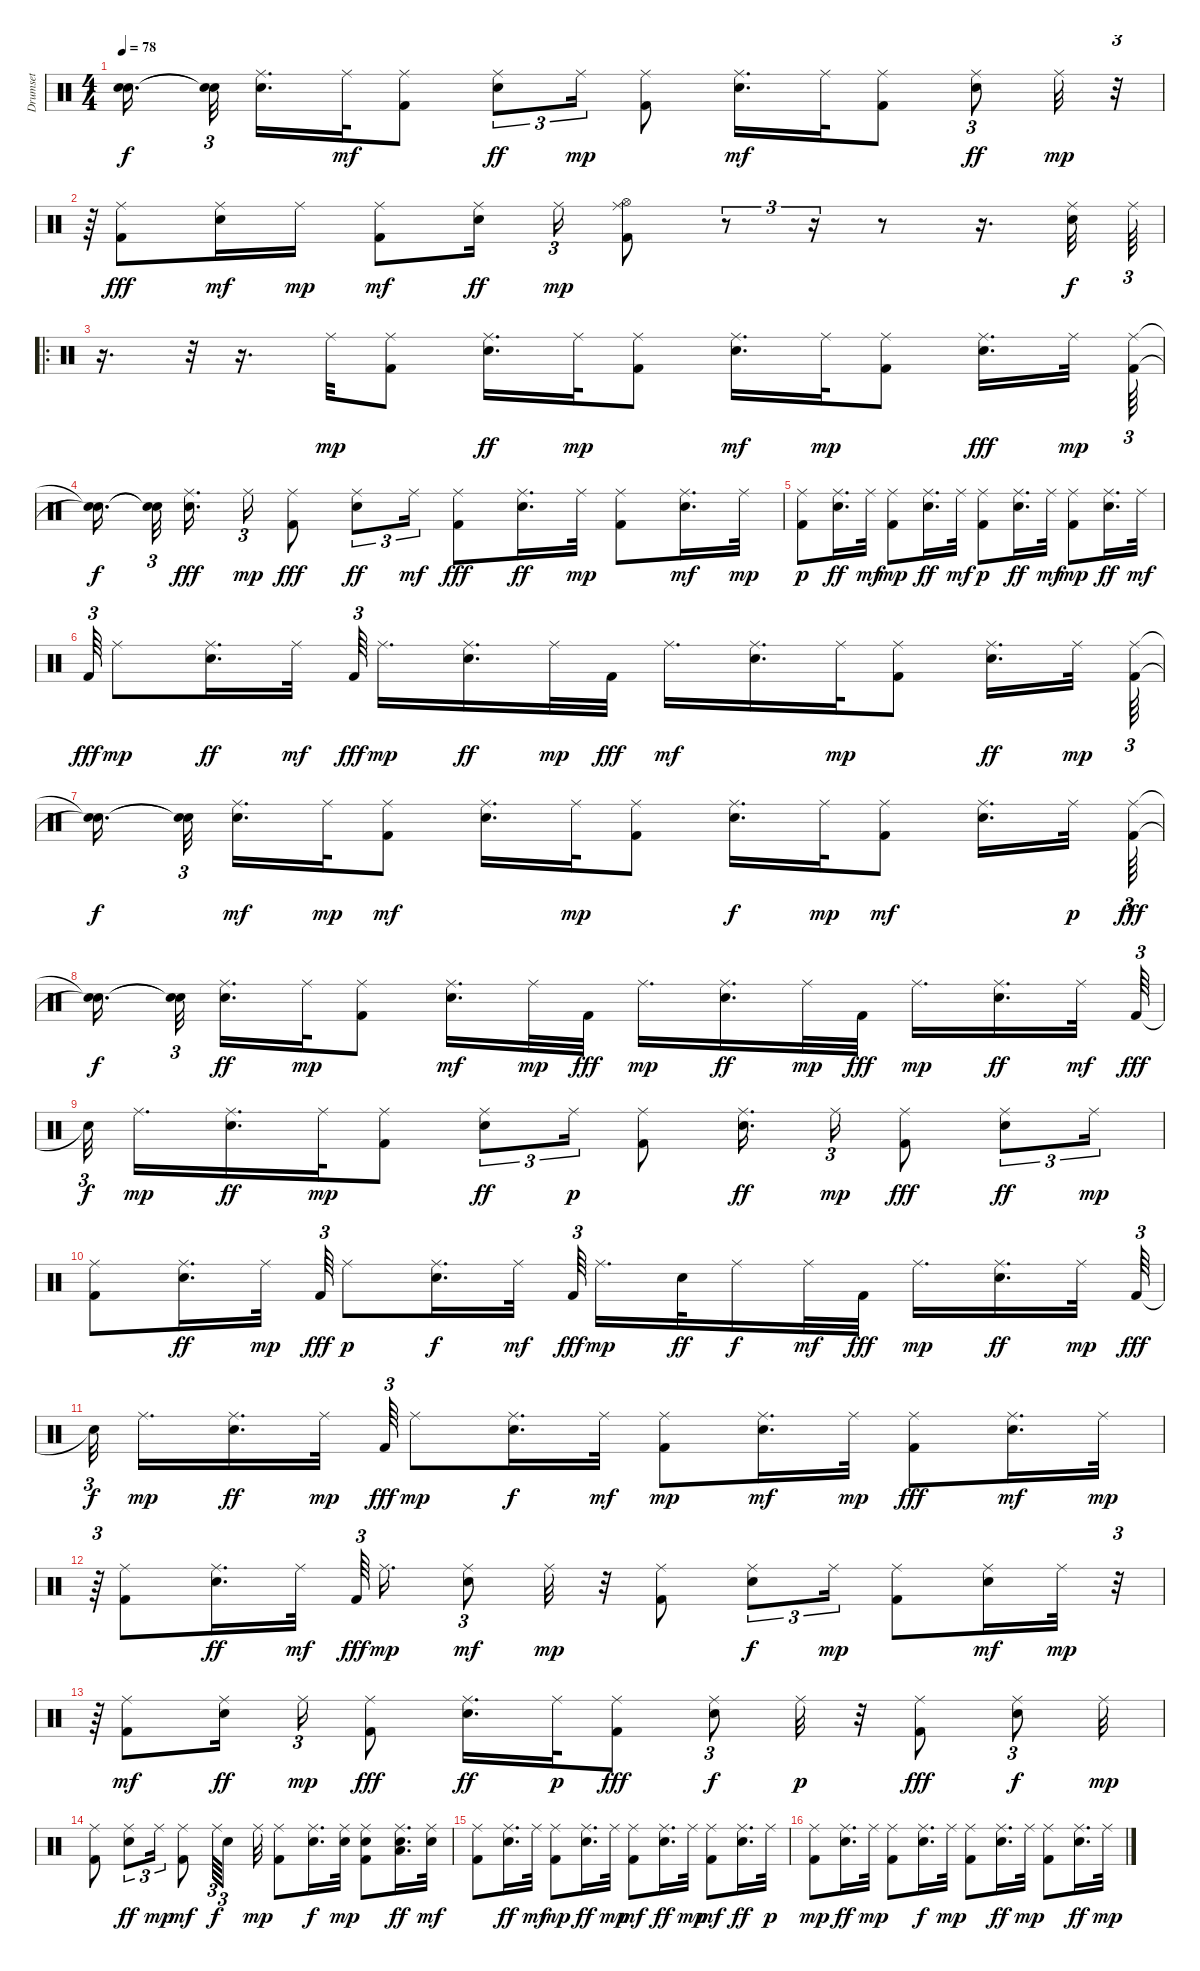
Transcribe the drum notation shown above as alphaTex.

\track ("Drumset" "Drumset") {instrument percussion}
\staff {score}
\articulation defaults
\ts (4 4)
\tempo 78
\clef neutral
\ks c
("Snare (hit)"{t} "Snare (hit)"{t}).16{d dy f beam splitsecondary} ("Snare (hit)"{t} "Snare (hit)"{t}).32{tu (3 2) beam splitsecondary} ("Snare (hit) 2" "Ride (middle)").16{d} "Ride (middle)".32{dy mf} ("Kick (hit) 2" "Ride (middle)").8 ("Ride (middle)" "Snare (hit) 2").8{tu (3 2) dy ff} "Ride (middle)".16{tu (3 2) dy mp} ("Kick (hit) 2" "Ride (middle)").8 ("Ride (middle)" "Snare (hit) 2").16{d dy mf} "Ride (middle)".32 ("Kick (hit) 2" "Ride (middle)").8 ("Ride (middle)" "Snare (hit) 2").8{tu (3 2) dy ff} "Ride (middle)".32{dy mp} r.32{tu (3 2)} |
r.64{tu (3 2)} ("Ride (middle)" "Kick (hit) 2").8{dy fff} ("Ride (middle)" "Snare (hit) 2").16{dy mf} "Ride (middle)".16{dy mp} ("Kick (hit) 2" "Ride (middle)").8{dy mf} ("Ride (middle)" "Snare (hit) 2").16{dy ff beam splitsecondary} "Ride (middle)".16{tu (3 2) dy mp} ("Kick (hit) 2" "Ride (middle)" "Hi-Hat (open)").8 r.8{tu (3 2)} r.16{tu (3 2)} r.8 r.16{d} ("Ride (middle)" "Snare (hit) 2").32{dy f} "Ride (middle)".64{tu (3 2)} |
\ro
r.16{d} r.32{tu (3 2)} r.16{d} "Ride (middle)".32{dy mp} ("Kick (hit) 2" "Ride (middle)").8 ("Ride (middle)" "Snare (hit) 2").16{d dy ff} "Ride (middle)".32{dy mp} ("Kick (hit) 2" "Ride (middle)").8 ("Ride (middle)" "Snare (hit) 2").16{d dy mf} "Ride (middle)".32{dy mp} ("Kick (hit) 2" "Ride (middle)").8 ("Ride (middle)" "Snare (hit) 2").16{d dy fff} "Ride (middle)".32{dy mp} ("Kick (hit) 2" "Ride (middle)").64{tu (3 2)} |
("Snare (hit)"{t} "Snare (hit)"{t}).16{d dy f beam splitsecondary} ("Snare (hit)"{t} "Snare (hit)"{t}).32{tu (3 2) beam splitsecondary} ("Ride (middle)" "Snare (hit) 2").16{d dy fff} "Ride (middle)".16{tu (3 2) dy mp} ("Ride (middle)" "Kick (hit) 2").8{dy fff} ("Ride (middle)" "Snare (hit) 2").8{tu (3 2) dy ff} "Ride (middle)".16{tu (3 2) dy mf} ("Ride (middle)" "Kick (hit) 2").8{dy fff} ("Snare (hit) 2" "Ride (middle)").16{d dy ff} "Ride (middle)".32{dy mp} ("Kick (hit) 2" "Ride (middle)").8 ("Snare (hit) 2" "Ride (middle)").16{d dy mf} "Ride (middle)".32{dy mp} |
("Kick (hit) 2" "Ride (middle)").8{dy p} ("Ride (middle)" "Snare (hit) 2").16{d dy ff} "Ride (middle)".32{dy mf} ("Kick (hit) 2" "Ride (middle)").8{dy mp} ("Ride (middle)" "Snare (hit) 2").16{d dy ff} "Ride (middle)".32{dy mf} ("Kick (hit) 2" "Ride (middle)").8{dy p} ("Snare (hit) 2" "Ride (middle)").16{d dy ff} "Ride (middle)".32{dy mf} ("Kick (hit) 2" "Ride (middle)").8{dy mp} ("Snare (hit) 2" "Ride (middle)").16{d dy ff} "Ride (middle)".32{dy mf} |
"Kick (hit) 2".64{tu (3 2) dy fff} "Ride (middle)".8{dy mp} ("Snare (hit) 2" "Ride (middle)").16{d dy ff} "Ride (middle)".32{dy mf} "Kick (hit) 2".64{tu (3 2) dy fff beam splitsecondary} "Ride (middle)".16{d dy mp} ("Ride (middle)" "Snare (hit) 2").16{d dy ff} "Ride (middle)".32{dy mp} "Kick (hit) 2".32{dy fff} "Ride (middle)".16{d dy mf} ("Snare (hit) 2" "Ride (middle)").16{d} "Ride (middle)".32{dy mp} ("Kick (hit) 2" "Ride (middle)").8 ("Ride (middle)" "Snare (hit) 2").16{d dy ff} "Ride (middle)".32{dy mp} ("Kick (hit) 2" "Ride (middle)").64{tu (3 2)} |
("Snare (hit)"{t} "Snare (hit)"{t}).16{d dy f beam splitsecondary} ("Snare (hit)"{t} "Snare (hit)"{t}).32{tu (3 2) beam splitsecondary} ("Snare (hit) 2" "Ride (middle)").16{d dy mf} "Ride (middle)".32{dy mp} ("Kick (hit) 2" "Ride (middle)").8{dy mf} ("Ride (middle)" "Snare (hit) 2").16{d} "Ride (middle)".32{dy mp} ("Kick (hit) 2" "Ride (middle)").8 ("Ride (middle)" "Snare (hit) 2").16{d dy f} "Ride (middle)".32{dy mp} ("Kick (hit) 2" "Ride (middle)").8{dy mf} ("Snare (hit) 2" "Ride (middle)").16{d} "Ride (middle)".32{dy p} ("Ride (middle)" "Kick (hit) 2").64{tu (3 2) dy fff} |
("Snare (hit)"{t} "Snare (hit)"{t}).16{d dy f beam splitsecondary} ("Snare (hit)"{t} "Snare (hit)"{t}).32{tu (3 2) beam splitsecondary} ("Ride (middle)" "Snare (hit) 2").16{d dy ff} "Ride (middle)".32{dy mp} ("Kick (hit) 2" "Ride (middle)").8 ("Snare (hit) 2" "Ride (middle)").16{d dy mf} "Ride (middle)".32{dy mp} "Kick (hit) 2".32{dy fff} "Ride (middle)".16{d dy mp} ("Ride (middle)" "Snare (hit) 2").16{d dy ff} "Ride (middle)".32{dy mp} "Kick (hit) 2".32{dy fff} "Ride (middle)".16{d dy mp} ("Snare (hit) 2" "Ride (middle)").16{d dy ff} "Ride (middle)".32{dy mf} "Kick (hit) 2".64{tu (3 2) dy fff} |
"Snare (hit)"{t}.32{tu (3 2) dy f beam splitsecondary} "Ride (middle)".16{d dy mp} ("Ride (middle)" "Snare (hit) 2").16{d dy ff} "Ride (middle)".32{dy mp} ("Kick (hit) 2" "Ride (middle)").8 ("Ride (middle)" "Snare (hit) 2").8{tu (3 2) dy ff} "Ride (middle)".16{tu (3 2) dy p} ("Kick (hit) 2" "Ride (middle)").8 ("Ride (middle)" "Snare (hit) 2").16{d dy ff} "Ride (middle)".16{tu (3 2) dy mp} ("Ride (middle)" "Kick (hit) 2").8{dy fff} ("Ride (middle)" "Snare (hit) 2").8{tu (3 2) dy ff} "Ride (middle)".16{tu (3 2) dy mp} |
("Kick (hit) 2" "Ride (middle)").8 ("Snare (hit) 2" "Ride (middle)").16{d dy ff} "Ride (middle)".32{dy mp} "Kick (hit) 2".64{tu (3 2) dy fff} "Ride (middle)".8{dy p} ("Snare (hit) 2" "Ride (middle)").16{d dy f} "Ride (middle)".32{dy mf} "Kick (hit) 2".64{tu (3 2) dy fff beam splitsecondary} "Ride (middle)".16{d dy mp} "Snare (hit) 2".32{dy ff} "Ride (middle)".16{dy f} "Ride (middle)".32{dy mf} "Kick (hit) 2".32{dy fff} "Ride (middle)".16{d dy mp} ("Snare (hit) 2" "Ride (middle)").16{d dy ff} "Ride (middle)".32{dy mp} "Kick (hit) 2".64{tu (3 2) dy fff} |
"Snare (hit)"{t}.32{tu (3 2) dy f beam splitsecondary} "Ride (middle)".16{d dy mp} ("Snare (hit) 2" "Ride (middle)").16{d dy ff} "Ride (middle)".32{dy mp} "Kick (hit) 2".64{tu (3 2) dy fff} "Ride (middle)".8{dy mp} ("Snare (hit) 2" "Ride (middle)").16{d dy f} "Ride (middle)".32{dy mf} ("Kick (hit) 2" "Ride (middle)").8{dy mp} ("Snare (hit) 2" "Ride (middle)").16{d dy mf} "Ride (middle)".32{dy mp} ("Ride (middle)" "Kick (hit) 2").8{dy fff} ("Ride (middle)" "Snare (hit) 2").16{d dy mf} "Ride (middle)".32{dy mp} |
r.64{tu (3 2)} ("Kick (hit) 2" "Ride (middle)").8 ("Ride (middle)" "Snare (hit) 2").16{d dy ff} "Ride (middle)".32{dy mf} "Kick (hit) 2".64{tu (3 2) dy fff beam splitsecondary} "Ride (middle)".16{d dy mp} ("Snare (hit) 2" "Ride (middle)").8{tu (3 2) dy mf} "Ride (middle)".32{dy mp} r.32 ("Kick (hit) 2" "Ride (middle)").8 ("Ride (middle)" "Snare (hit) 2").8{tu (3 2) dy f} "Ride (middle)".16{tu (3 2) dy mp} ("Kick (hit) 2" "Ride (middle)").8 ("Ride (middle)" "Snare (hit) 2").16{dy mf} "Ride (middle)".32{dy mp} r.32{tu (3 2)} |
r.64{tu (3 2)} ("Kick (hit) 2" "Ride (middle)").8{dy mf} ("Ride (middle)" "Snare (hit) 2").16{dy ff beam splitsecondary} "Ride (middle)".16{tu (3 2) dy mp} ("Ride (middle)" "Kick (hit) 2").8{dy fff} ("Ride (middle)" "Snare (hit) 2").16{d dy ff} "Ride (middle)".32{dy p} ("Ride (middle)" "Kick (hit) 2").8{dy fff} ("Snare (hit) 2" "Ride (middle)").8{tu (3 2) dy f} "Ride (middle)".32{dy p} r.32 ("Ride (middle)" "Kick (hit) 2").8{dy fff} ("Snare (hit) 2" "Ride (middle)").8{tu (3 2) dy f} "Ride (middle)".32{dy mp} |
("Kick (hit) 2" "Ride (middle)").8 ("Snare (hit) 2" "Ride (middle)").8{tu (3 2) dy ff} "Ride (middle)".16{tu (3 2) dy mp} ("Kick (hit) 2" "Ride (middle)").8{dy mf} "Ride (middle)".64{tu (3 2) dy f} "Snare (hit) 2".8{tu (3 2)} "Ride (middle)".32{dy mp} ("Kick (hit) 2" "Ride (middle)").8 ("Snare (hit) 2" "Ride (middle)").16{d dy f} ("Ride (middle)" "Snare (hit) 2").32{dy mp} ("Kick (hit) 2" "Ride (middle)" "Electric Snare (hit)").8 ("Ride (middle)" "Snare (hit) 2" "Low Floor Tom (hit)").16{d dy ff} ("Ride (middle)" "Snare (hit) 2").32{dy mf} |
("Kick (hit) 2" "Ride (middle)").8 ("Ride (middle)" "Snare (hit) 2").16{d dy ff} "Ride (middle)".32{dy mf} ("Kick (hit) 2" "Ride (middle)").8{dy mp} ("Snare (hit) 2" "Ride (middle)").16{d dy ff} "Ride (middle)".32{dy mp} ("Kick (hit) 2" "Ride (middle)").8{dy mf} ("Snare (hit) 2" "Ride (middle)").16{d dy ff} "Ride (middle)".32{dy mp} ("Kick (hit) 2" "Ride (middle)").8{dy mf} ("Snare (hit) 2" "Ride (middle)").16{d dy ff} "Ride (middle)".32{dy p} |
("Kick (hit) 2" "Ride (middle)").8{dy mp} ("Ride (middle)" "Snare (hit) 2").16{d dy ff} "Ride (middle)".32{dy mp} ("Kick (hit) 2" "Ride (middle)").8 ("Ride (middle)" "Snare (hit) 2").16{d dy f} "Ride (middle)".32{dy mp} ("Kick (hit) 2" "Ride (middle)").8 ("Snare (hit) 2" "Ride (middle)").16{d dy ff} "Ride (middle)".32{dy mp} ("Kick (hit) 2" "Ride (middle)").8 ("Snare (hit) 2" "Ride (middle)").16{d dy ff} "Ride (middle)".32{dy mp}
